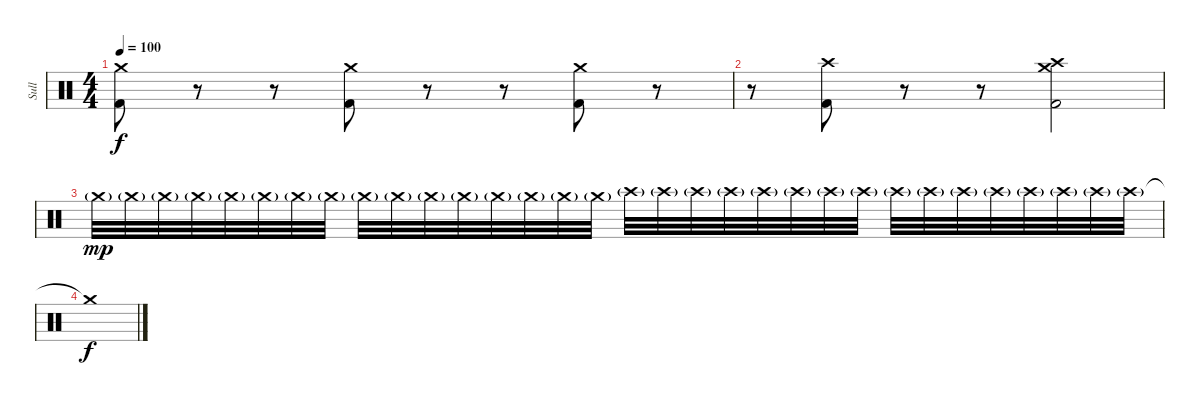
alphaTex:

\track ("Sull" "Sull") {instrument percussion}
\staff {score}
\articulation defaults
\ts (4 4)
\tempo 100
\clef neutral
\ks c
("Crash medium (hit)" "Kick (hit) 2").8{dy f} r.8 r.8 ("Crash medium (hit)" "Kick (hit) 2").8 r.8 r.8 ("Crash medium (hit)" "Kick (hit) 2").8 r.8 |
r.8 ("Crash high (hit)" "Kick (hit) 2").8 r.8 r.8 ("Crash medium (hit)" "Crash high (hit)" "Kick (hit) 2").2 |
"Crash medium (hit)"{g}.32{dy mp} "Crash medium (hit)"{g}.32 "Crash medium (hit)"{g}.32 "Crash medium (hit)"{g}.32 "Crash medium (hit)"{g}.32 "Crash medium (hit)"{g}.32 "Crash medium (hit)"{g}.32 "Crash medium (hit)"{g}.32 "Crash medium (hit)"{g}.32 "Crash medium (hit)"{g}.32 "Crash medium (hit)"{g}.32 "Crash medium (hit)"{g}.32 "Crash medium (hit)"{g}.32 "Crash medium (hit)"{g}.32 "Crash medium (hit)"{g}.32 "Crash medium (hit)"{g}.32 "Crash high (hit)"{g}.32 "Crash high (hit)"{g}.32 "Crash high (hit)"{g}.32 "Crash high (hit)"{g}.32 "Crash high (hit)"{g}.32 "Crash high (hit)"{g}.32 "Crash high (hit)"{g}.32 "Crash high (hit)"{g}.32 "Crash high (hit)"{g}.32 "Crash high (hit)"{g}.32 "Crash high (hit)"{g}.32 "Crash high (hit)"{g}.32 "Crash high (hit)"{g}.32 "Crash high (hit)"{g}.32 "Crash high (hit)"{g}.32 "Crash high (hit)"{g}.32 |
"Crash medium (hit)"{t}.1{dy f}
